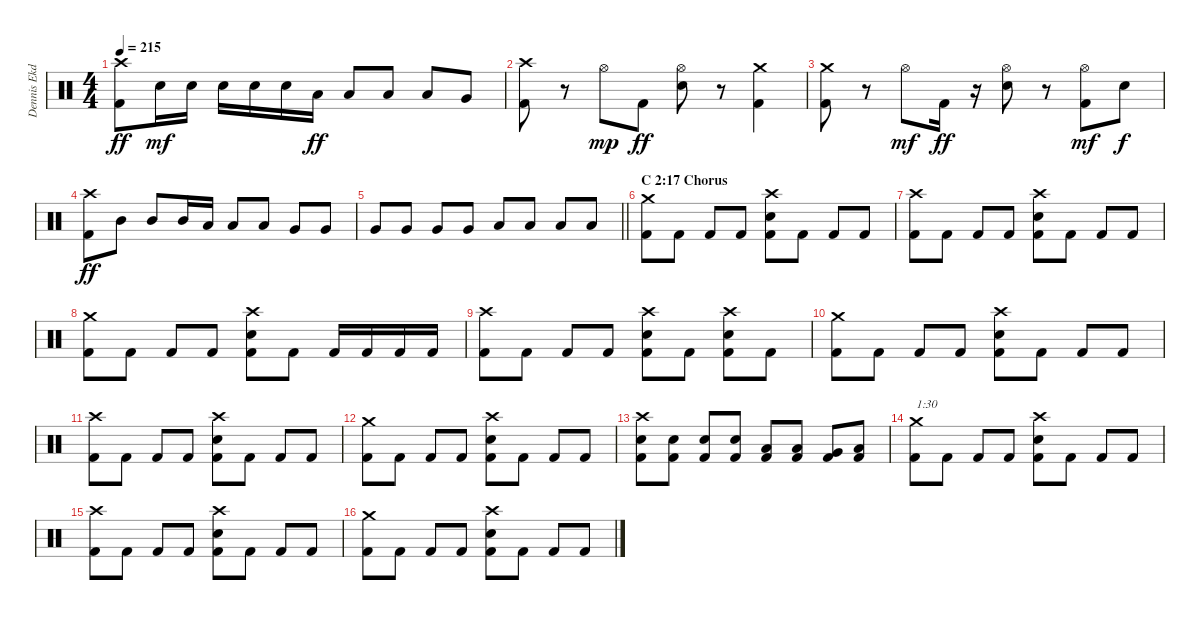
\track ("Dennis Ekdahl      (Drums)" "Dennis Ekd") {instrument percussion}
\staff {score}
\articulation defaults
\ts (4 4)
\tempo 215
\clef neutral
\ks c
("Crash high (hit)" "Kick (hit) 2").8{dy ff} "Electric Snare (hit)".16{dy mf} "Electric Snare (hit)".16 "Electric Snare (hit)".16 "Electric Snare (hit)".16 "Electric Snare (hit)".16 "Low Tom (hit)".16{dy ff} "Low Tom (hit)".8 "Low Tom (hit)".8 "Low Tom (hit)".8 "Very Low Tom (hit)".8 |
("Crash high (hit)" "Kick (hit) 2").8 r.8 "Hi-Hat (open)".8{dy mp} "Kick (hit) 2".8{dy ff} ("Hi-Hat (open)" "Electric Snare (hit)").8 r.8 ("Crash medium (hit)" "Kick (hit) 2").4 |
("Crash medium (hit)" "Kick (hit) 2").8 r.8 "Hi-Hat (open)".8{dy mf} "Kick (hit) 2".16{dy ff} r.16 ("Hi-Hat (open)" "Electric Snare (hit)").8 r.8 ("Hi-Hat (open)" "Kick (hit) 2").8{dy mf} "Electric Snare (hit)".8{dy f} |
("Crash high (hit)" "Kick (hit) 2").8{dy ff} "Mid Tom (hit)".8 "Mid Tom (hit)".8 "Mid Tom (hit)".16 "Low Tom (hit)".16 "Low Tom (hit)".8 "Low Tom (hit)".8 "Very Low Tom (hit)".8 "Very Low Tom (hit)".8 |
\barLineRight lightlight "Very Low Tom (hit)".8 "Very Low Tom (hit)".8 "Very Low Tom (hit)".8 "Very Low Tom (hit)".8 "Low Floor Tom (hit)".8 "Low Floor Tom (hit)".8 "Low Floor Tom (hit)".8 "Low Floor Tom (hit)".8
|
\section ("" "C 2:17 Chorus")
("Crash medium (hit)" "Kick (hit) 2").8 "Kick (hit) 2".8 "Kick (hit) 2".8 "Kick (hit) 2".8 ("Crash high (hit)" "Electric Snare (hit)" "Kick (hit) 2").8 "Kick (hit) 2".8 "Kick (hit) 2".8 "Kick (hit) 2".8 |
("Crash high (hit)" "Kick (hit) 2").8 "Kick (hit) 2".8 "Kick (hit) 2".8 "Kick (hit) 2".8 ("Crash high (hit)" "Electric Snare (hit)" "Kick (hit) 2").8 "Kick (hit) 2".8 "Kick (hit) 2".8 "Kick (hit) 2".8 |
("Crash medium (hit)" "Kick (hit) 2").8 "Kick (hit) 2".8 "Kick (hit) 2".8 "Kick (hit) 2".8 ("Crash high (hit)" "Electric Snare (hit)" "Kick (hit) 2").8 "Kick (hit) 2".8 "Kick (hit) 2".16 "Kick (hit) 2".16 "Kick (hit) 2".16 "Kick (hit) 2".16 |
("Crash high (hit)" "Kick (hit) 2").8 "Kick (hit) 2".8 "Kick (hit) 2".8 "Kick (hit) 2".8 ("Crash high (hit)" "Electric Snare (hit)" "Kick (hit) 2").8 "Kick (hit) 2".8 ("Crash high (hit)" "Electric Snare (hit)" "Kick (hit) 2").8 "Kick (hit) 2".8 |
("Crash medium (hit)" "Kick (hit) 2").8 "Kick (hit) 2".8 "Kick (hit) 2".8 "Kick (hit) 2".8 ("Crash high (hit)" "Electric Snare (hit)" "Kick (hit) 2").8 "Kick (hit) 2".8 "Kick (hit) 2".8 "Kick (hit) 2".8 |
("Crash high (hit)" "Kick (hit) 2").8 "Kick (hit) 2".8 "Kick (hit) 2".8 "Kick (hit) 2".8 ("Crash high (hit)" "Electric Snare (hit)" "Kick (hit) 2").8 "Kick (hit) 2".8 "Kick (hit) 2".8 "Kick (hit) 2".8 |
("Crash medium (hit)" "Kick (hit) 2").8 "Kick (hit) 2".8 "Kick (hit) 2".8 "Kick (hit) 2".8 ("Crash high (hit)" "Electric Snare (hit)" "Kick (hit) 2").8 "Kick (hit) 2".8 "Kick (hit) 2".8 "Kick (hit) 2".8 |
("Crash high (hit)" "Electric Snare (hit)" "Kick (hit) 2").8 ("Electric Snare (hit)" "Kick (hit) 2").8 ("Electric Snare (hit)" "Kick (hit) 2").8 ("Electric Snare (hit)" "Kick (hit) 2").8 ("Low Tom (hit)" "Kick (hit) 2").8 ("Low Tom (hit)" "Kick (hit) 2").8 ("Very Low Tom (hit)" "Kick (hit) 2").8 ("Low Floor Tom (hit)" "Kick (hit) 2").8 |
("Crash medium (hit)" "Kick (hit) 2").8{txt "1:30"} "Kick (hit) 2".8 "Kick (hit) 2".8 "Kick (hit) 2".8 ("Crash high (hit)" "Electric Snare (hit)" "Kick (hit) 2").8 "Kick (hit) 2".8 "Kick (hit) 2".8 "Kick (hit) 2".8 |
("Crash high (hit)" "Kick (hit) 2").8 "Kick (hit) 2".8 "Kick (hit) 2".8 "Kick (hit) 2".8 ("Crash high (hit)" "Electric Snare (hit)" "Kick (hit) 2").8 "Kick (hit) 2".8 "Kick (hit) 2".8 "Kick (hit) 2".8 |
("Crash medium (hit)" "Kick (hit) 2").8 "Kick (hit) 2".8 "Kick (hit) 2".8 "Kick (hit) 2".8 ("Crash high (hit)" "Electric Snare (hit)" "Kick (hit) 2").8 "Kick (hit) 2".8 "Kick (hit) 2".8 "Kick (hit) 2".8
